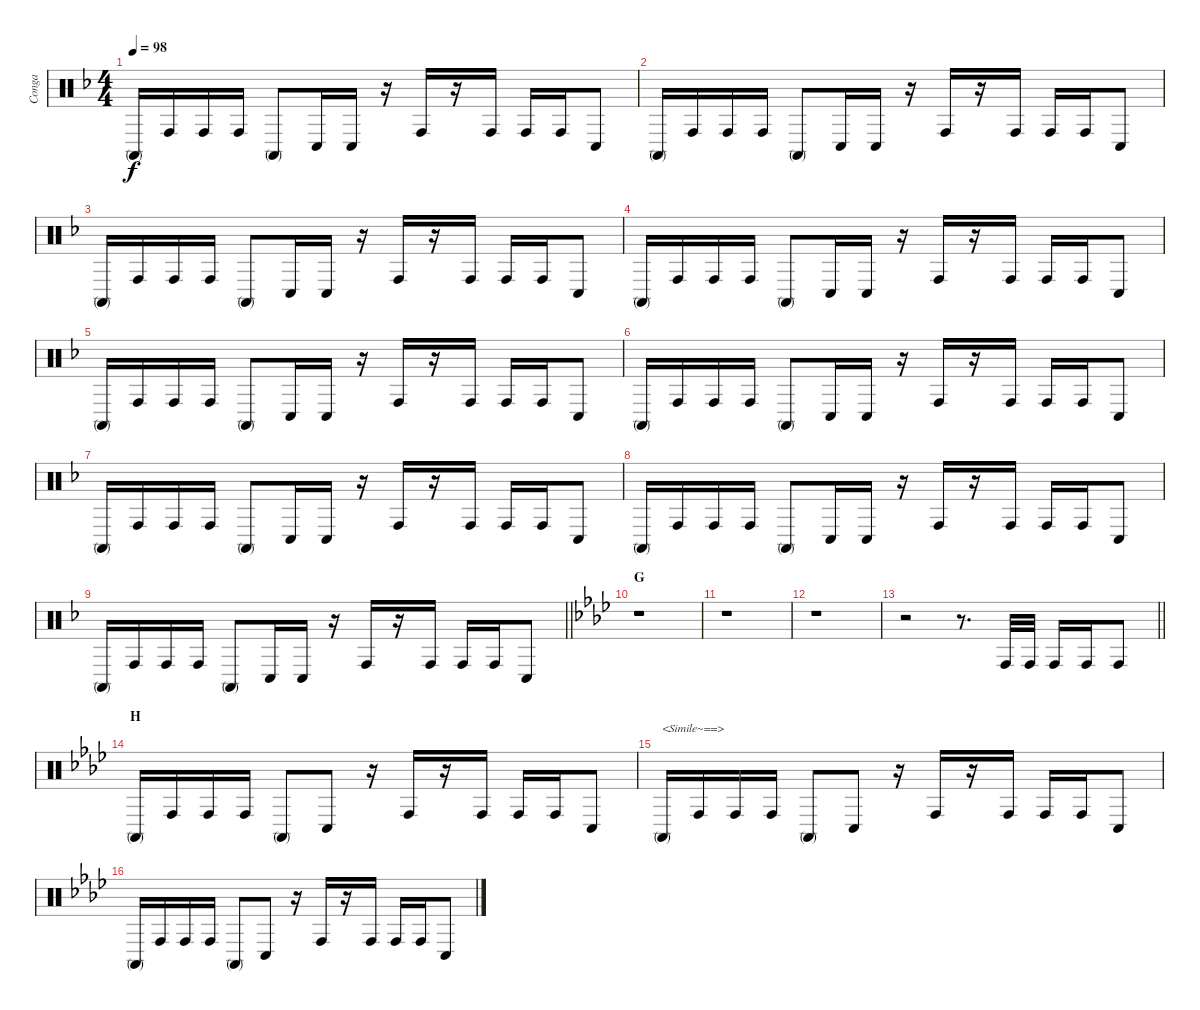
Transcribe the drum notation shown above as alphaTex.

\track ("Conga" "Conga") {instrument percussion}
\staff {score}
\articulation defaults
\ts (4 4)
\tempo 98
\clef neutral
\ks f "Conga high (mute)".16{dy f} "Conga high (hit)".16 "Conga high (hit)".16 "Conga high (hit)".16 "Conga high (mute)".8 "Conga low (hit)".16 "Conga low (hit)".16
r.16 "Conga high (hit)".16 r.16 "Conga high (hit)".16 "Conga high (hit)".16 "Conga high (hit)".16 "Conga low (hit)".8 |
"Conga high (mute)".16 "Conga high (hit)".16 "Conga high (hit)".16 "Conga high (hit)".16 "Conga high (mute)".8 "Conga low (hit)".16 "Conga low (hit)".16 r.16 "Conga high (hit)".16 r.16 "Conga high (hit)".16 "Conga high (hit)".16 "Conga high (hit)".16 "Conga low (hit)".8 |
"Conga high (mute)".16 "Conga high (hit)".16 "Conga high (hit)".16 "Conga high (hit)".16 "Conga high (mute)".8 "Conga low (hit)".16 "Conga low (hit)".16 r.16 "Conga high (hit)".16 r.16 "Conga high (hit)".16 "Conga high (hit)".16 "Conga high (hit)".16 "Conga low (hit)".8 |
"Conga high (mute)".16 "Conga high (hit)".16 "Conga high (hit)".16 "Conga high (hit)".16 "Conga high (mute)".8 "Conga low (hit)".16 "Conga low (hit)".16 r.16 "Conga high (hit)".16 r.16 "Conga high (hit)".16 "Conga high (hit)".16 "Conga high (hit)".16 "Conga low (hit)".8 |
"Conga high (mute)".16 "Conga high (hit)".16 "Conga high (hit)".16 "Conga high (hit)".16 "Conga high (mute)".8 "Conga low (hit)".16 "Conga low (hit)".16 r.16 "Conga high (hit)".16 r.16 "Conga high (hit)".16 "Conga high (hit)".16 "Conga high (hit)".16 "Conga low (hit)".8 |
"Conga high (mute)".16 "Conga high (hit)".16 "Conga high (hit)".16 "Conga high (hit)".16 "Conga high (mute)".8 "Conga low (hit)".16 "Conga low (hit)".16 r.16 "Conga high (hit)".16 r.16 "Conga high (hit)".16 "Conga high (hit)".16 "Conga high (hit)".16 "Conga low (hit)".8 |
"Conga high (mute)".16 "Conga high (hit)".16 "Conga high (hit)".16 "Conga high (hit)".16 "Conga high (mute)".8 "Conga low (hit)".16 "Conga low (hit)".16 r.16 "Conga high (hit)".16 r.16 "Conga high (hit)".16 "Conga high (hit)".16 "Conga high (hit)".16 "Conga low (hit)".8 |
"Conga high (mute)".16 "Conga high (hit)".16 "Conga high (hit)".16 "Conga high (hit)".16 "Conga high (mute)".8 "Conga low (hit)".16 "Conga low (hit)".16 r.16 "Conga high (hit)".16 r.16 "Conga high (hit)".16 "Conga high (hit)".16 "Conga high (hit)".16 "Conga low (hit)".8 |
\barLineRight lightlight "Conga high (mute)".16 "Conga high (hit)".16 "Conga high (hit)".16 "Conga high (hit)".16 "Conga high (mute)".8 "Conga low (hit)".16 "Conga low (hit)".16
r.16 "Conga high (hit)".16 r.16 "Conga high (hit)".16 "Conga high (hit)".16 "Conga high (hit)".16 "Conga low (hit)".8 |
\section ("" "G")
\ks ab
r.1 |
r.1 |
r.1 |
\barLineRight lightlight
r.2 r.8{d} "Conga high (hit)".32 "Conga high (hit)".32 "Conga high (hit)".16 "Conga high (hit)".16 "Conga high (hit)".8 |
\section ("" "H")
"Conga high (mute)".16 "Conga high (hit)".16 "Conga high (hit)".16 "Conga high (hit)".16 "Conga high (mute)".8 "Conga low (hit)".8 r.16 "Conga high (hit)".16 r.16 "Conga high (hit)".16 "Conga high (hit)".16 "Conga high (hit)".16 "Conga low (hit)".8 |
"Conga high (mute)".16{txt "<Simile~==>"} "Conga high (hit)".16 "Conga high (hit)".16 "Conga high (hit)".16 "Conga high (mute)".8 "Conga low (hit)".8 r.16 "Conga high (hit)".16 r.16 "Conga high (hit)".16 "Conga high (hit)".16 "Conga high (hit)".16 "Conga low (hit)".8 |
"Conga high (mute)".16 "Conga high (hit)".16 "Conga high (hit)".16 "Conga high (hit)".16 "Conga high (mute)".8 "Conga low (hit)".8 r.16 "Conga high (hit)".16 r.16 "Conga high (hit)".16 "Conga high (hit)".16 "Conga high (hit)".16 "Conga low (hit)".8
